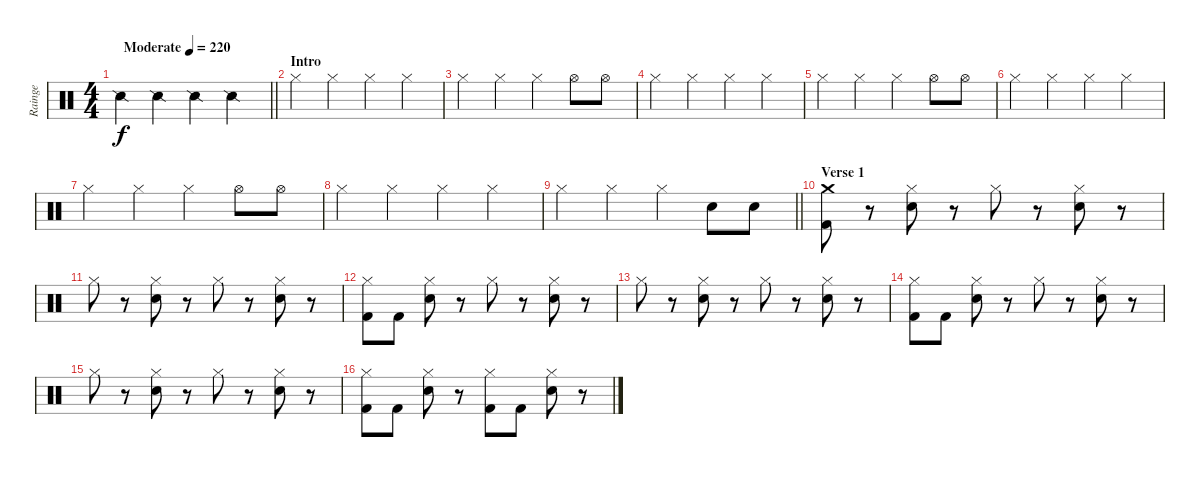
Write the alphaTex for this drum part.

\track ("Rainge" "Rainge") {instrument percussion}
\staff {score}
\articulation defaults
\ts (4 4)
\tempo (220 "Moderate")
\clef neutral
\barLineRight lightlight
\ks c "Snare (side stick) 2".4{dy f} "Snare (side stick) 2".4 "Snare (side stick) 2".4 "Snare (side stick) 2".4
|
\section ("" "Intro")
"Hi-Hat (closed)".4 "Hi-Hat (closed)".4 "Hi-Hat (closed)".4 "Hi-Hat (closed)".4 |
"Hi-Hat (closed)".4 "Hi-Hat (closed)".4 "Hi-Hat (closed)".4 "Hi-Hat (open)".8 "Hi-Hat (open)".8 |
"Hi-Hat (closed)".4 "Hi-Hat (closed)".4 "Hi-Hat (closed)".4 "Hi-Hat (closed)".4 |
"Hi-Hat (closed)".4 "Hi-Hat (closed)".4 "Hi-Hat (closed)".4 "Hi-Hat (open)".8 "Hi-Hat (open)".8 |
"Hi-Hat (closed)".4 "Hi-Hat (closed)".4 "Hi-Hat (closed)".4 "Hi-Hat (closed)".4 |
"Hi-Hat (closed)".4 "Hi-Hat (closed)".4 "Hi-Hat (closed)".4 "Hi-Hat (open)".8 "Hi-Hat (open)".8 |
"Hi-Hat (closed)".4 "Hi-Hat (closed)".4 "Hi-Hat (closed)".4 "Hi-Hat (closed)".4 |
\barLineRight lightlight "Hi-Hat (closed)".4 "Hi-Hat (closed)".4 "Hi-Hat (closed)".4 "Electric Snare (hit)".8 "Electric Snare (hit)".8
|
\section ("" "Verse 1")
("Crash medium (hit)" "Kick (hit) 2").8 r.8 ("Hi-Hat (closed)" "Electric Snare (hit)").8 r.8 "Hi-Hat (closed)".8 r.8 ("Hi-Hat (closed)" "Electric Snare (hit)").8 r.8 |
"Hi-Hat (closed)".8 r.8 ("Hi-Hat (closed)" "Electric Snare (hit)").8 r.8 "Hi-Hat (closed)".8 r.8 ("Hi-Hat (closed)" "Electric Snare (hit)").8 r.8 |
("Hi-Hat (closed)" "Kick (hit) 2").8 "Kick (hit) 2".8 ("Hi-Hat (closed)" "Electric Snare (hit)").8 r.8 "Hi-Hat (closed)".8 r.8 ("Hi-Hat (closed)" "Electric Snare (hit)").8 r.8 |
"Hi-Hat (closed)".8 r.8 ("Hi-Hat (closed)" "Electric Snare (hit)").8 r.8 "Hi-Hat (closed)".8 r.8 ("Hi-Hat (closed)" "Electric Snare (hit)").8 r.8 |
("Hi-Hat (closed)" "Kick (hit) 2").8 "Kick (hit) 2".8 ("Hi-Hat (closed)" "Electric Snare (hit)").8 r.8 "Hi-Hat (closed)".8 r.8 ("Hi-Hat (closed)" "Electric Snare (hit)").8 r.8 |
"Hi-Hat (closed)".8 r.8 ("Hi-Hat (closed)" "Electric Snare (hit)").8 r.8 "Hi-Hat (closed)".8 r.8 ("Hi-Hat (closed)" "Electric Snare (hit)").8 r.8 |
("Hi-Hat (closed)" "Kick (hit) 2").8 "Kick (hit) 2".8 ("Hi-Hat (closed)" "Electric Snare (hit)").8 r.8 ("Hi-Hat (closed)" "Kick (hit) 2").8 "Kick (hit) 2".8 ("Hi-Hat (closed)" "Electric Snare (hit)").8 r.8
